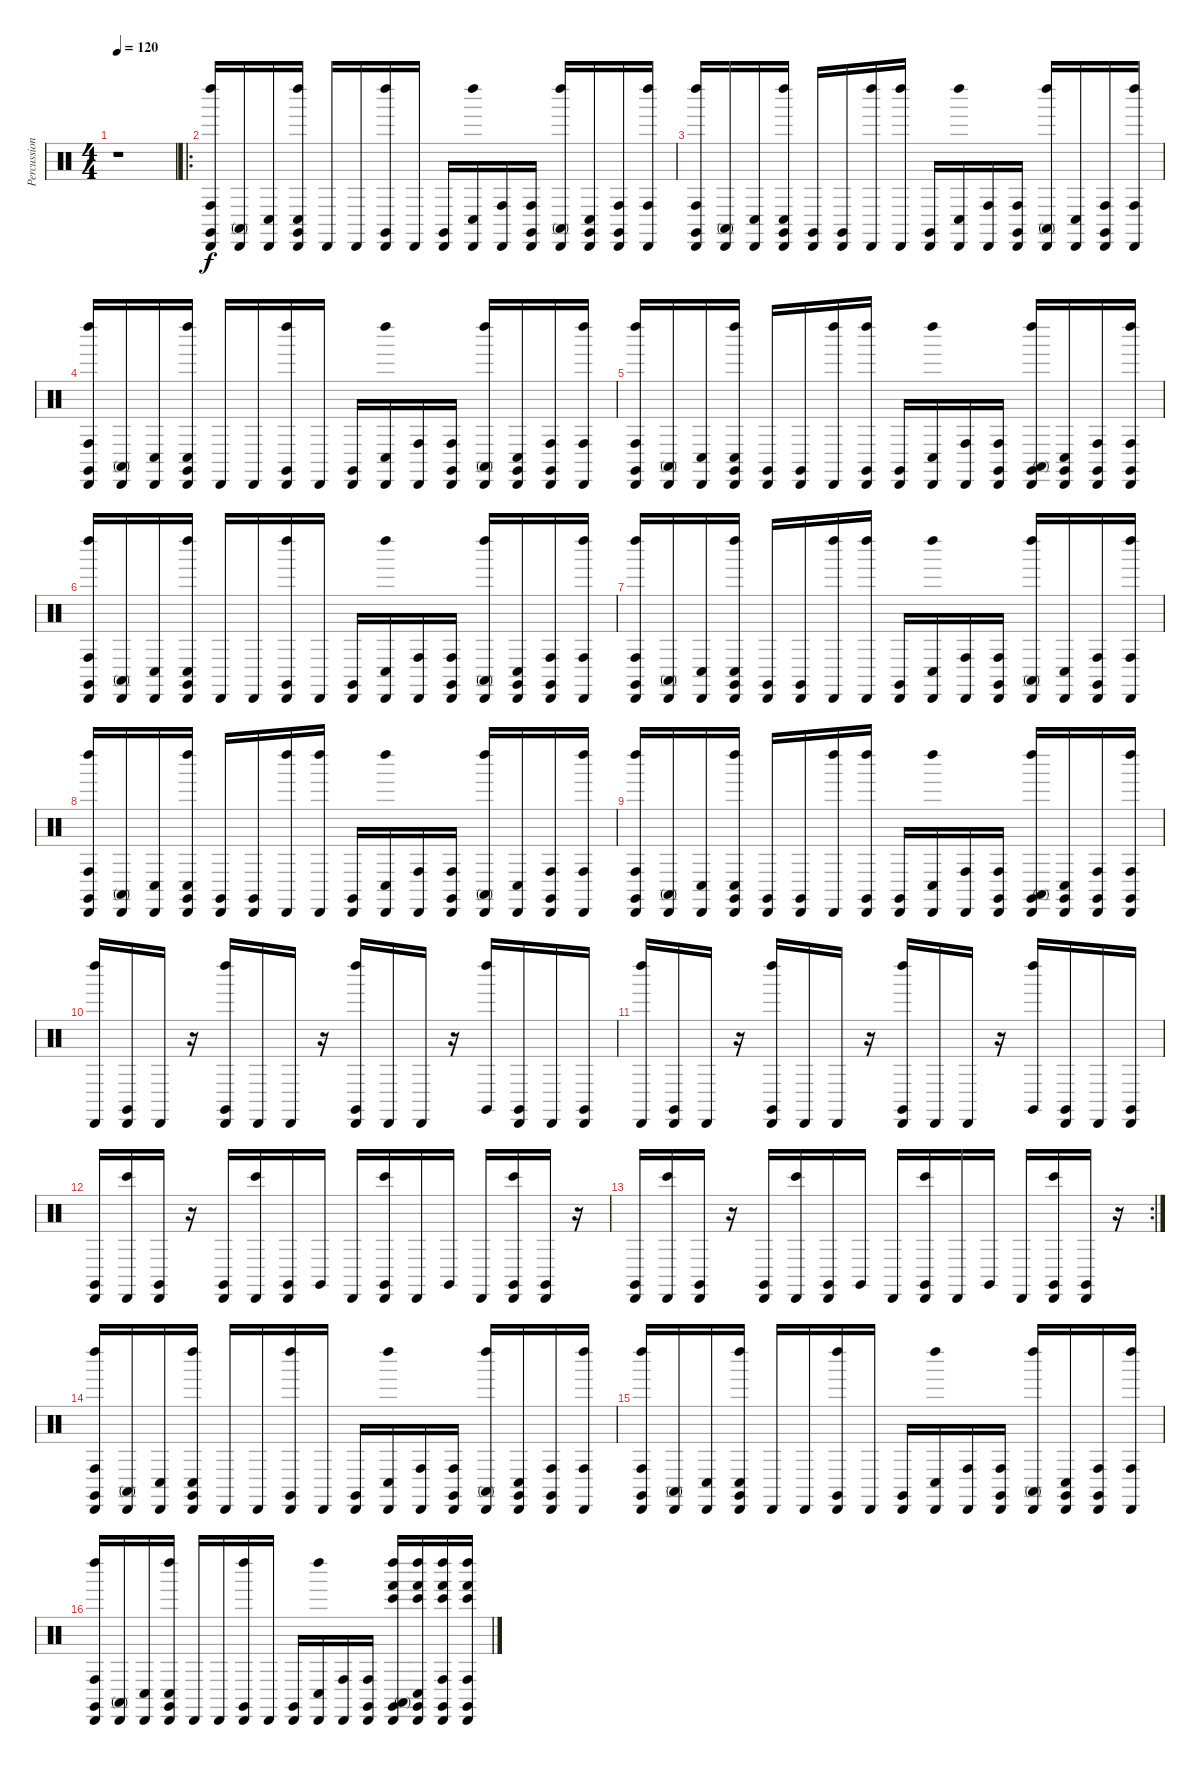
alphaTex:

\track ("Percussion" "Percussion") {instrument percussion}
\staff {score}
\articulation defaults
\ts (4 4)
\tempo 120
\clef neutral
\ks c
r.1{dy f} |
\ro
("Cabasa (hit)" "Conga high (hit)" "Left Maraca (hit)" "Claves (hit)").16 ("Cabasa (hit)" "Conga high (mute)").16 ("Cabasa (hit)" "Conga low (hit)").16 ("Cabasa (hit)" "Conga low (hit)" "Left Maraca (hit)" "Claves (hit)").16 "Cabasa (hit)".16 "Cabasa (hit)".16 ("Cabasa (hit)" "Left Maraca (hit)" "Claves (hit)").16 "Cabasa (hit)".16 ("Cabasa (hit)" "Claves (hit)").16 ("Cabasa (hit)" "Conga low (hit)" "Left Maraca (hit)").16 ("Cabasa (hit)" "Conga high (hit)").16 ("Cabasa (hit)" "Conga high (hit)" "Claves (hit)").16 ("Cabasa (hit)" "Conga high (mute)" "Left Maraca (hit)").16 ("Cabasa (hit)" "Conga low (hit)" "Claves (hit)").16 ("Cabasa (hit)" "Conga high (hit)" "Claves (hit)").16 ("Cabasa (hit)" "Conga high (hit)" "Left Maraca (hit)").16 |
("Cabasa (hit)" "Conga high (hit)" "Left Maraca (hit)" "Claves (hit)").16 ("Cabasa (hit)" "Conga high (mute)").16 ("Cabasa (hit)" "Conga low (hit)").16 ("Cabasa (hit)" "Conga low (hit)" "Left Maraca (hit)" "Claves (hit)").16 ("Cabasa (hit)" "Claves (hit)").16 ("Cabasa (hit)" "Claves (hit)").16 ("Cabasa (hit)" "Left Maraca (hit)").16 ("Cabasa (hit)" "Left Maraca (hit)").16 ("Cabasa (hit)" "Claves (hit)").16 ("Cabasa (hit)" "Conga low (hit)" "Left Maraca (hit)").16 ("Cabasa (hit)" "Conga high (hit)").16 ("Cabasa (hit)" "Conga high (hit)" "Claves (hit)").16 ("Cabasa (hit)" "Conga high (mute)" "Left Maraca (hit)").16 ("Cabasa (hit)" "Conga low (hit)").16 ("Cabasa (hit)" "Conga high (hit)" "Claves (hit)").16 ("Cabasa (hit)" "Conga high (hit)" "Left Maraca (hit)").16 |
("Cabasa (hit)" "Conga high (hit)" "Left Maraca (hit)" "Claves (hit)").16 ("Cabasa (hit)" "Conga high (mute)").16 ("Cabasa (hit)" "Conga low (hit)").16 ("Cabasa (hit)" "Conga low (hit)" "Left Maraca (hit)" "Claves (hit)").16 "Cabasa (hit)".16 "Cabasa (hit)".16 ("Cabasa (hit)" "Left Maraca (hit)" "Claves (hit)").16 "Cabasa (hit)".16 ("Cabasa (hit)" "Claves (hit)").16 ("Cabasa (hit)" "Conga low (hit)" "Left Maraca (hit)").16 ("Cabasa (hit)" "Conga high (hit)").16 ("Cabasa (hit)" "Conga high (hit)" "Claves (hit)").16 ("Cabasa (hit)" "Conga high (mute)" "Left Maraca (hit)").16 ("Cabasa (hit)" "Conga low (hit)" "Claves (hit)").16 ("Cabasa (hit)" "Conga high (hit)" "Claves (hit)").16 ("Cabasa (hit)" "Conga high (hit)" "Left Maraca (hit)").16 |
("Cabasa (hit)" "Conga high (hit)" "Left Maraca (hit)" "Claves (hit)").16 ("Cabasa (hit)" "Conga high (mute)").16 ("Cabasa (hit)" "Conga low (hit)").16 ("Cabasa (hit)" "Conga low (hit)" "Left Maraca (hit)" "Claves (hit)").16 ("Cabasa (hit)" "Claves (hit)").16 ("Cabasa (hit)" "Claves (hit)").16 ("Cabasa (hit)" "Left Maraca (hit)").16 ("Cabasa (hit)" "Left Maraca (hit)" "Claves (hit)").16 ("Cabasa (hit)" "Claves (hit)").16 ("Cabasa (hit)" "Conga low (hit)" "Left Maraca (hit)").16 ("Cabasa (hit)" "Conga high (hit)").16 ("Cabasa (hit)" "Conga high (hit)" "Claves (hit)").16 ("Cabasa (hit)" "Conga high (mute)" "Left Maraca (hit)" "Claves (hit)").16 ("Cabasa (hit)" "Conga low (hit)" "Claves (hit)").16 ("Cabasa (hit)" "Conga high (hit)" "Claves (hit)").16 ("Cabasa (hit)" "Conga high (hit)" "Left Maraca (hit)" "Claves (hit)").16 |
("Cabasa (hit)" "Conga high (hit)" "Left Maraca (hit)" "Claves (hit)").16 ("Cabasa (hit)" "Conga high (mute)").16 ("Cabasa (hit)" "Conga low (hit)").16 ("Cabasa (hit)" "Conga low (hit)" "Left Maraca (hit)" "Claves (hit)").16 "Cabasa (hit)".16 "Cabasa (hit)".16 ("Cabasa (hit)" "Left Maraca (hit)" "Claves (hit)").16 "Cabasa (hit)".16 ("Cabasa (hit)" "Claves (hit)").16 ("Cabasa (hit)" "Conga low (hit)" "Left Maraca (hit)").16 ("Cabasa (hit)" "Conga high (hit)").16 ("Cabasa (hit)" "Conga high (hit)" "Claves (hit)").16 ("Cabasa (hit)" "Conga high (mute)" "Left Maraca (hit)").16 ("Cabasa (hit)" "Conga low (hit)" "Claves (hit)").16 ("Cabasa (hit)" "Conga high (hit)" "Claves (hit)").16 ("Cabasa (hit)" "Conga high (hit)" "Left Maraca (hit)").16 |
("Cabasa (hit)" "Conga high (hit)" "Left Maraca (hit)" "Claves (hit)").16 ("Cabasa (hit)" "Conga high (mute)").16 ("Cabasa (hit)" "Conga low (hit)").16 ("Cabasa (hit)" "Conga low (hit)" "Left Maraca (hit)" "Claves (hit)").16 ("Cabasa (hit)" "Claves (hit)").16 ("Cabasa (hit)" "Claves (hit)").16 ("Cabasa (hit)" "Left Maraca (hit)").16 ("Cabasa (hit)" "Left Maraca (hit)").16 ("Cabasa (hit)" "Claves (hit)").16 ("Cabasa (hit)" "Conga low (hit)" "Left Maraca (hit)").16 ("Cabasa (hit)" "Conga high (hit)").16 ("Cabasa (hit)" "Conga high (hit)" "Claves (hit)").16 ("Cabasa (hit)" "Conga high (mute)" "Left Maraca (hit)").16 ("Cabasa (hit)" "Conga low (hit)").16 ("Cabasa (hit)" "Conga high (hit)" "Claves (hit)").16 ("Cabasa (hit)" "Conga high (hit)" "Left Maraca (hit)").16 |
("Cabasa (hit)" "Conga high (hit)" "Left Maraca (hit)" "Claves (hit)").16 ("Cabasa (hit)" "Conga high (mute)").16 ("Cabasa (hit)" "Conga low (hit)").16 ("Cabasa (hit)" "Conga low (hit)" "Left Maraca (hit)" "Claves (hit)").16 ("Cabasa (hit)" "Claves (hit)").16 ("Cabasa (hit)" "Claves (hit)").16 ("Cabasa (hit)" "Left Maraca (hit)").16 ("Cabasa (hit)" "Left Maraca (hit)").16 ("Cabasa (hit)" "Claves (hit)").16 ("Cabasa (hit)" "Conga low (hit)" "Left Maraca (hit)").16 ("Cabasa (hit)" "Conga high (hit)").16 ("Cabasa (hit)" "Conga high (hit)" "Claves (hit)").16 ("Cabasa (hit)" "Conga high (mute)" "Left Maraca (hit)").16 ("Cabasa (hit)" "Conga low (hit)").16 ("Cabasa (hit)" "Conga high (hit)" "Claves (hit)").16 ("Cabasa (hit)" "Conga high (hit)" "Left Maraca (hit)").16 |
("Cabasa (hit)" "Conga high (hit)" "Left Maraca (hit)" "Claves (hit)").16 ("Cabasa (hit)" "Conga high (mute)").16 ("Cabasa (hit)" "Conga low (hit)").16 ("Cabasa (hit)" "Conga low (hit)" "Left Maraca (hit)" "Claves (hit)").16 ("Cabasa (hit)" "Claves (hit)").16 ("Cabasa (hit)" "Claves (hit)").16 ("Cabasa (hit)" "Left Maraca (hit)").16 ("Cabasa (hit)" "Left Maraca (hit)" "Claves (hit)").16 ("Cabasa (hit)" "Claves (hit)").16 ("Cabasa (hit)" "Conga low (hit)" "Left Maraca (hit)").16 ("Cabasa (hit)" "Conga high (hit)").16 ("Cabasa (hit)" "Conga high (hit)" "Claves (hit)").16 ("Cabasa (hit)" "Conga high (mute)" "Left Maraca (hit)" "Claves (hit)").16 ("Cabasa (hit)" "Conga low (hit)" "Claves (hit)").16 ("Cabasa (hit)" "Conga high (hit)" "Claves (hit)").16 ("Cabasa (hit)" "Conga high (hit)" "Left Maraca (hit)" "Claves (hit)").16 |
("Cabasa (hit)" "Left Maraca (hit)").16 ("Cabasa (hit)" "Claves (hit)").16 "Cabasa (hit)".16 r.16 ("Cabasa (hit)" "Left Maraca (hit)" "Claves (hit)").16 "Cabasa (hit)".16 "Cabasa (hit)".16 r.16 ("Cabasa (hit)" "Left Maraca (hit)" "Claves (hit)").16 "Cabasa (hit)".16 "Cabasa (hit)".16 r.16 ("Left Maraca (hit)" "Claves (hit)").16 ("Cabasa (hit)" "Claves (hit)").16 "Cabasa (hit)".16 ("Cabasa (hit)" "Claves (hit)").16 |
("Cabasa (hit)" "Left Maraca (hit)").16 ("Cabasa (hit)" "Claves (hit)").16 "Cabasa (hit)".16 r.16 ("Cabasa (hit)" "Left Maraca (hit)" "Claves (hit)").16 "Cabasa (hit)".16 "Cabasa (hit)".16 r.16 ("Cabasa (hit)" "Left Maraca (hit)" "Claves (hit)").16 "Cabasa (hit)".16 "Cabasa (hit)".16 r.16 ("Left Maraca (hit)" "Claves (hit)").16 ("Cabasa (hit)" "Claves (hit)").16 "Cabasa (hit)".16 ("Cabasa (hit)" "Claves (hit)").16 |
("Cabasa (hit)" "Claves (hit)").16 ("Cabasa (hit)" "Bongo High (hit)").16 ("Cabasa (hit)" "Claves (hit)").16 r.16 ("Cabasa (hit)" "Claves (hit)").16 ("Cabasa (hit)" "Bongo High (hit)").16 ("Cabasa (hit)" "Claves (hit)").16 "Claves (hit)".16 "Cabasa (hit)".16 ("Cabasa (hit)" "Claves (hit)" "Bongo High (hit)").16 "Cabasa (hit)".16 "Claves (hit)".16 "Cabasa (hit)".16 ("Cabasa (hit)" "Claves (hit)" "Bongo High (hit)").16 ("Cabasa (hit)" "Claves (hit)").16 r.16 |
\rc 2
("Cabasa (hit)" "Claves (hit)").16 ("Cabasa (hit)" "Bongo High (hit)").16 ("Cabasa (hit)" "Claves (hit)").16 r.16 ("Cabasa (hit)" "Claves (hit)").16 ("Cabasa (hit)" "Bongo High (hit)").16 ("Cabasa (hit)" "Claves (hit)").16 "Claves (hit)".16 "Cabasa (hit)".16 ("Cabasa (hit)" "Claves (hit)" "Bongo High (hit)").16 "Cabasa (hit)".16 "Claves (hit)".16 "Cabasa (hit)".16 ("Cabasa (hit)" "Claves (hit)" "Bongo High (hit)").16 ("Cabasa (hit)" "Claves (hit)").16 r.16 |
("Cabasa (hit)" "Conga high (hit)" "Left Maraca (hit)" "Claves (hit)").16 ("Cabasa (hit)" "Conga high (mute)").16 ("Cabasa (hit)" "Conga low (hit)").16 ("Cabasa (hit)" "Conga low (hit)" "Left Maraca (hit)" "Claves (hit)").16 "Cabasa (hit)".16 "Cabasa (hit)".16 ("Cabasa (hit)" "Left Maraca (hit)" "Claves (hit)").16 "Cabasa (hit)".16 ("Cabasa (hit)" "Claves (hit)").16 ("Cabasa (hit)" "Conga low (hit)" "Left Maraca (hit)").16 ("Cabasa (hit)" "Conga high (hit)").16 ("Cabasa (hit)" "Conga high (hit)" "Claves (hit)").16 ("Cabasa (hit)" "Conga high (mute)" "Left Maraca (hit)").16 ("Cabasa (hit)" "Conga low (hit)" "Claves (hit)").16 ("Cabasa (hit)" "Conga high (hit)" "Claves (hit)").16 ("Cabasa (hit)" "Conga high (hit)" "Left Maraca (hit)").16 |
("Cabasa (hit)" "Conga high (hit)" "Left Maraca (hit)" "Claves (hit)").16 ("Cabasa (hit)" "Conga high (mute)").16 ("Cabasa (hit)" "Conga low (hit)").16 ("Cabasa (hit)" "Conga low (hit)" "Left Maraca (hit)" "Claves (hit)").16 "Cabasa (hit)".16 "Cabasa (hit)".16 ("Cabasa (hit)" "Left Maraca (hit)" "Claves (hit)").16 "Cabasa (hit)".16 ("Cabasa (hit)" "Claves (hit)").16 ("Cabasa (hit)" "Conga low (hit)" "Left Maraca (hit)").16 ("Cabasa (hit)" "Conga high (hit)").16 ("Cabasa (hit)" "Conga high (hit)" "Claves (hit)").16 ("Cabasa (hit)" "Conga high (mute)" "Left Maraca (hit)").16 ("Cabasa (hit)" "Conga low (hit)" "Claves (hit)").16 ("Cabasa (hit)" "Conga high (hit)" "Claves (hit)").16 ("Cabasa (hit)" "Conga high (hit)" "Left Maraca (hit)").16 |
("Cabasa (hit)" "Conga high (hit)" "Left Maraca (hit)" "Claves (hit)").16 ("Cabasa (hit)" "Conga high (mute)").16 ("Cabasa (hit)" "Conga low (hit)").16 ("Cabasa (hit)" "Conga low (hit)" "Left Maraca (hit)" "Claves (hit)").16 "Cabasa (hit)".16 "Cabasa (hit)".16 ("Cabasa (hit)" "Left Maraca (hit)" "Claves (hit)").16 "Cabasa (hit)".16 ("Cabasa (hit)" "Claves (hit)").16 ("Cabasa (hit)" "Conga low (hit)" "Left Maraca (hit)").16 ("Cabasa (hit)" "Conga high (hit)").16 ("Cabasa (hit)" "Conga high (hit)" "Claves (hit)").16 ("Cabasa (hit)" "Conga high (mute)" "Left Maraca (hit)" "Claves (hit)" "Hand (hit)" "Bongo High (hit)").16 ("Cabasa (hit)" "Conga low (hit)" "Left Maraca (hit)" "Claves (hit)" "Hand (hit)" "Bongo High (hit)").16 ("Cabasa (hit)" "Conga high (hit)" "Left Maraca (hit)" "Claves (hit)" "Hand (hit)" "Bongo High (hit)").16 ("Cabasa (hit)" "Conga high (hit)" "Left Maraca (hit)" "Bongo High (hit)" "Hand (hit)" "Claves (hit)").16
